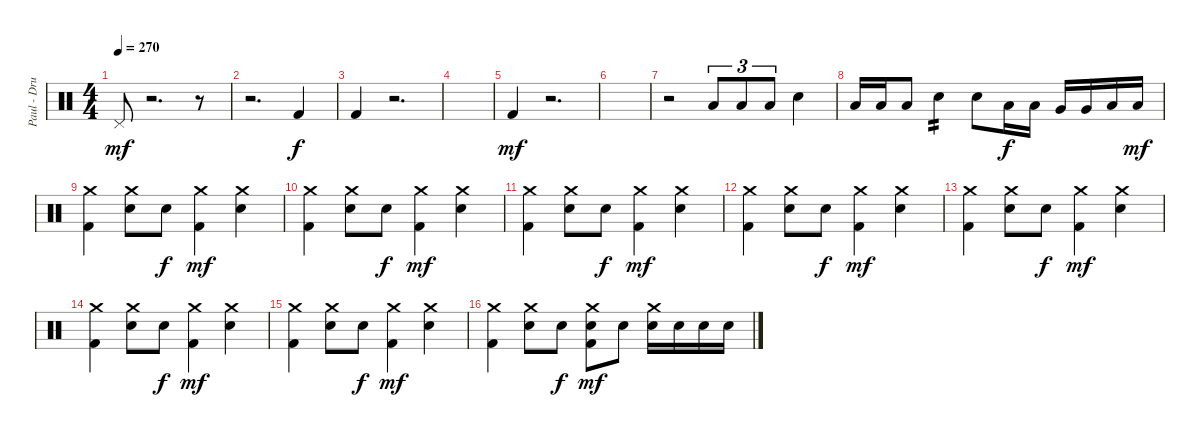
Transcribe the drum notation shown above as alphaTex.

\track ("Paul - Drums" "Paul - Dru") {instrument percussion}
\staff {score}
\articulation defaults
\ts (4 4)
\tempo 270
\clef neutral
\ks c "Pedal Hi-Hat (hit)".8{dy mf}
r.2{d} r.8 |
r.2{d} "Kick (hit) 2".4{dy f} |
"Kick (hit) 2".4 r.2{d} |
|
"Kick (hit) 2".4{dy mf} r.2{d} |
|
r.2 "Low Tom (hit)".8{tu (3 2)} "Low Tom (hit)".8{tu (3 2)} "Low Tom (hit)".8{tu (3 2)} "Electric Snare (hit)".4 |
"Low Tom (hit)".16 "Low Tom (hit)".16 "Low Tom (hit)".8 "Electric Snare (hit)".4{tp 2} "Electric Snare (hit)".8 "Low Tom (hit)".16{dy f} "Low Tom (hit)".16 "Very Low Tom (hit)".16 "Very Low Tom (hit)".16 "Low Floor Tom (hit)".16 "Low Floor Tom (hit)".16{dy mf} |
("Crash medium (hit)" "Kick (hit) 2").4 ("Crash medium (hit)" "Electric Snare (hit)").8 "Electric Snare (hit)".8{dy f} ("Crash medium (hit)" "Kick (hit) 2").4{dy mf} ("Crash medium (hit)" "Electric Snare (hit)").4 |
("Crash medium (hit)" "Kick (hit) 2").4 ("Crash medium (hit)" "Electric Snare (hit)").8 "Electric Snare (hit)".8{dy f} ("Crash medium (hit)" "Kick (hit) 2").4{dy mf} ("Crash medium (hit)" "Electric Snare (hit)").4 |
("Crash medium (hit)" "Kick (hit) 2").4 ("Crash medium (hit)" "Electric Snare (hit)").8 "Electric Snare (hit)".8{dy f} ("Crash medium (hit)" "Kick (hit) 2").4{dy mf} ("Crash medium (hit)" "Electric Snare (hit)").4 |
("Crash medium (hit)" "Kick (hit) 2").4 ("Crash medium (hit)" "Electric Snare (hit)").8 "Electric Snare (hit)".8{dy f} ("Crash medium (hit)" "Kick (hit) 2").4{dy mf} ("Crash medium (hit)" "Electric Snare (hit)").4 |
("Crash medium (hit)" "Kick (hit) 2").4 ("Crash medium (hit)" "Electric Snare (hit)").8 "Electric Snare (hit)".8{dy f} ("Crash medium (hit)" "Kick (hit) 2").4{dy mf} ("Crash medium (hit)" "Electric Snare (hit)").4 |
("Crash medium (hit)" "Kick (hit) 2").4 ("Crash medium (hit)" "Electric Snare (hit)").8 "Electric Snare (hit)".8{dy f} ("Crash medium (hit)" "Kick (hit) 2").4{dy mf} ("Crash medium (hit)" "Electric Snare (hit)").4 |
("Crash medium (hit)" "Kick (hit) 2").4 ("Crash medium (hit)" "Electric Snare (hit)").8 "Electric Snare (hit)".8{dy f} ("Crash medium (hit)" "Kick (hit) 2").4{dy mf} ("Crash medium (hit)" "Electric Snare (hit)").4 |
("Crash medium (hit)" "Kick (hit) 2").4 ("Crash medium (hit)" "Electric Snare (hit)").8 "Electric Snare (hit)".8{dy f} ("Crash medium (hit)" "Electric Snare (hit)" "Kick (hit) 2").8{dy mf} "Electric Snare (hit)".8 ("Crash medium (hit)" "Electric Snare (hit)").16 "Electric Snare (hit)".16 "Electric Snare (hit)".16 "Electric Snare (hit)".16
